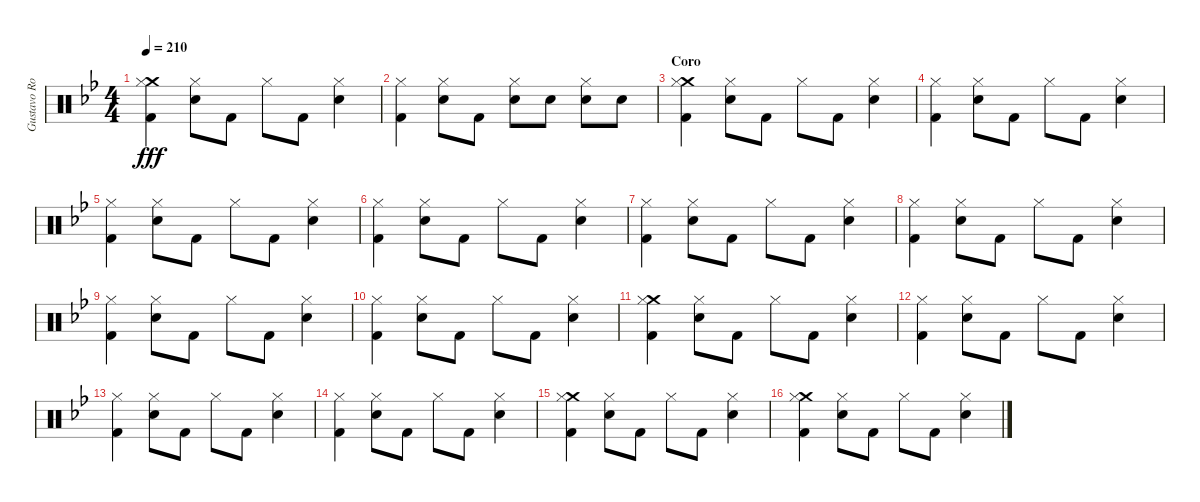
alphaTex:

\track ("Gustavo Rowek" "Gustavo Ro") {instrument percussion}
\staff {score}
\articulation defaults
\ts (4 4)
\tempo 210
\clef neutral
\ks gminor
("Crash medium (hit)" "Hi-Hat (closed)" "Kick (hit) 2").4{dy fff} ("Hi-Hat (closed)" "Snare (hit) 2").8 "Kick (hit) 2".8 "Hi-Hat (closed)".8 "Kick (hit) 2".8 ("Hi-Hat (closed)" "Snare (hit) 2").4 |
("Hi-Hat (closed)" "Kick (hit) 2").4 ("Hi-Hat (closed)" "Snare (hit) 2").8 "Kick (hit) 2".8 ("Hi-Hat (closed)" "Snare (hit) 2").8 "Snare (hit) 2".8 ("Hi-Hat (closed)" "Snare (hit) 2").8 "Snare (hit) 2".8 |
\section ("" "Coro")
("Crash medium (hit)" "Hi-Hat (closed)" "Kick (hit) 2").4 ("Hi-Hat (closed)" "Snare (hit) 2").8 "Kick (hit) 2".8 "Hi-Hat (closed)".8 "Kick (hit) 2".8 ("Hi-Hat (closed)" "Snare (hit) 2").4 |
("Hi-Hat (closed)" "Kick (hit) 2").4 ("Hi-Hat (closed)" "Snare (hit) 2").8 "Kick (hit) 2".8 "Hi-Hat (closed)".8 "Kick (hit) 2".8 ("Hi-Hat (closed)" "Snare (hit) 2").4 |
("Hi-Hat (closed)" "Kick (hit) 2").4 ("Hi-Hat (closed)" "Snare (hit) 2").8 "Kick (hit) 2".8 "Hi-Hat (closed)".8 "Kick (hit) 2".8 ("Hi-Hat (closed)" "Snare (hit) 2").4 |
("Hi-Hat (closed)" "Kick (hit) 2").4 ("Hi-Hat (closed)" "Snare (hit) 2").8 "Kick (hit) 2".8 "Hi-Hat (closed)".8 "Kick (hit) 2".8 ("Hi-Hat (closed)" "Snare (hit) 2").4 |
("Hi-Hat (closed)" "Kick (hit) 2").4 ("Hi-Hat (closed)" "Snare (hit) 2").8 "Kick (hit) 2".8 "Hi-Hat (closed)".8 "Kick (hit) 2".8 ("Hi-Hat (closed)" "Snare (hit) 2").4 |
("Hi-Hat (closed)" "Kick (hit) 2").4 ("Hi-Hat (closed)" "Snare (hit) 2").8 "Kick (hit) 2".8 "Hi-Hat (closed)".8 "Kick (hit) 2".8 ("Hi-Hat (closed)" "Snare (hit) 2").4 |
("Hi-Hat (closed)" "Kick (hit) 2").4 ("Hi-Hat (closed)" "Snare (hit) 2").8 "Kick (hit) 2".8 "Hi-Hat (closed)".8 "Kick (hit) 2".8 ("Hi-Hat (closed)" "Snare (hit) 2").4 |
("Hi-Hat (closed)" "Kick (hit) 2").4 ("Hi-Hat (closed)" "Snare (hit) 2").8 "Kick (hit) 2".8 "Hi-Hat (closed)".8 "Kick (hit) 2".8 ("Hi-Hat (closed)" "Snare (hit) 2").4 |
("Crash medium (hit)" "Hi-Hat (closed)" "Kick (hit) 2").4 ("Hi-Hat (closed)" "Snare (hit) 2").8 "Kick (hit) 2".8 "Hi-Hat (closed)".8 "Kick (hit) 2".8 ("Hi-Hat (closed)" "Snare (hit) 2").4 |
("Hi-Hat (closed)" "Kick (hit) 2").4 ("Hi-Hat (closed)" "Snare (hit) 2").8 "Kick (hit) 2".8 "Hi-Hat (closed)".8 "Kick (hit) 2".8 ("Hi-Hat (closed)" "Snare (hit) 2").4 |
("Hi-Hat (closed)" "Kick (hit) 2").4 ("Hi-Hat (closed)" "Snare (hit) 2").8 "Kick (hit) 2".8 "Hi-Hat (closed)".8 "Kick (hit) 2".8 ("Hi-Hat (closed)" "Snare (hit) 2").4 |
("Hi-Hat (closed)" "Kick (hit) 2").4 ("Hi-Hat (closed)" "Snare (hit) 2").8 "Kick (hit) 2".8 "Hi-Hat (closed)".8 "Kick (hit) 2".8 ("Hi-Hat (closed)" "Snare (hit) 2").4 |
("Crash medium (hit)" "Hi-Hat (closed)" "Kick (hit) 2").4 ("Hi-Hat (closed)" "Snare (hit) 2").8 "Kick (hit) 2".8 "Hi-Hat (closed)".8 "Kick (hit) 2".8 ("Hi-Hat (closed)" "Snare (hit) 2").4 |
("Crash medium (hit)" "Hi-Hat (closed)" "Kick (hit) 2").4 ("Hi-Hat (closed)" "Snare (hit) 2").8 "Kick (hit) 2".8 "Hi-Hat (closed)".8 "Kick (hit) 2".8 ("Hi-Hat (closed)" "Snare (hit) 2").4
